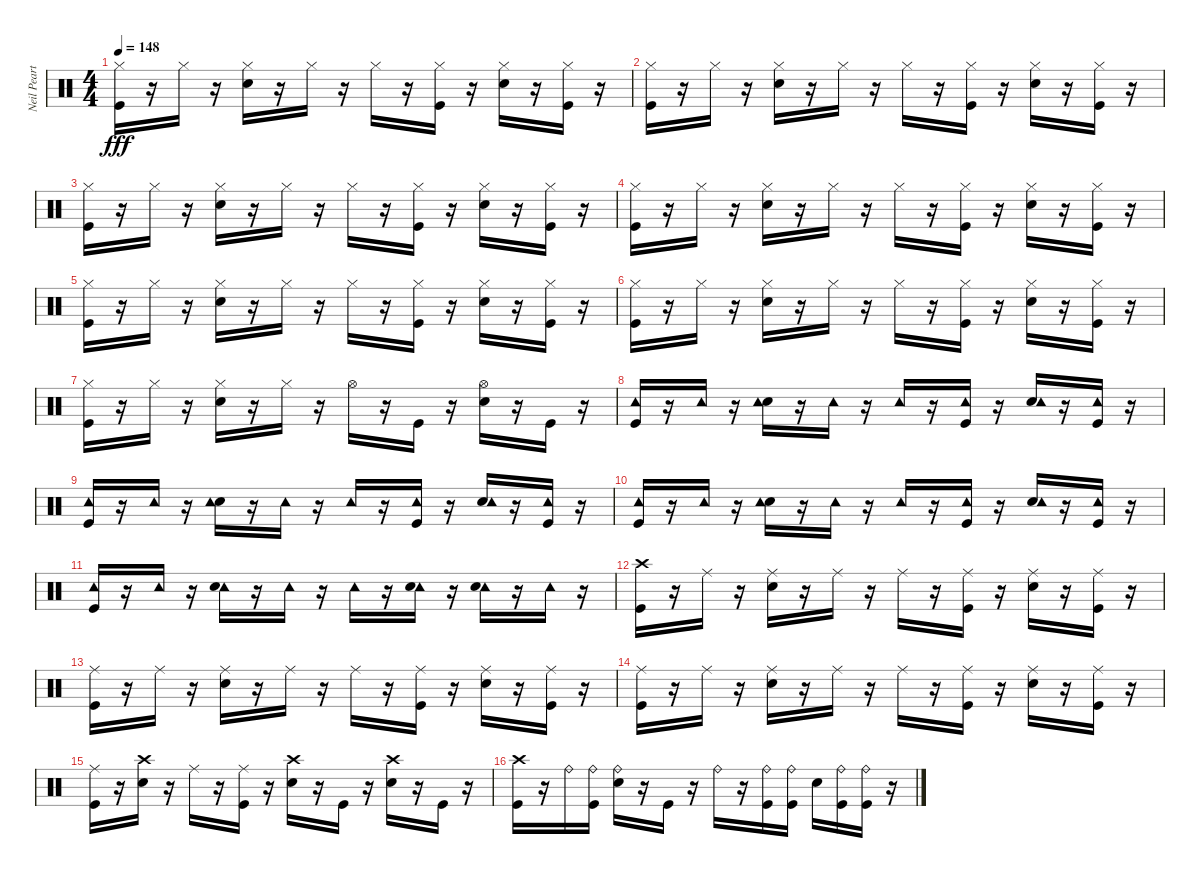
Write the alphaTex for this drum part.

\track ("Neil Peart" "Neil Peart") {instrument percussion}
\staff {score}
\articulation defaults
\ts (4 4)
\tempo 148
\clef neutral
\ks c
("Hi-Hat (closed)" "Kick (hit)").16{dy fff} r.16 "Hi-Hat (closed)".16 r.16 ("Hi-Hat (closed)" "Snare (hit) 2").16 r.16 "Hi-Hat (closed)".16 r.16 "Hi-Hat (closed)".16 r.16 ("Hi-Hat (closed)" "Kick (hit)").16 r.16 ("Hi-Hat (closed)" "Snare (hit) 2").16 r.16 ("Hi-Hat (closed)" "Kick (hit)").16 r.16 |
("Hi-Hat (closed)" "Kick (hit)").16 r.16 "Hi-Hat (closed)".16 r.16 ("Hi-Hat (closed)" "Snare (hit) 2").16 r.16 "Hi-Hat (closed)".16 r.16 "Hi-Hat (closed)".16 r.16 ("Hi-Hat (closed)" "Kick (hit)").16 r.16 ("Hi-Hat (closed)" "Snare (hit) 2").16 r.16 ("Hi-Hat (closed)" "Kick (hit)").16 r.16 |
("Hi-Hat (closed)" "Kick (hit)").16 r.16 "Hi-Hat (closed)".16 r.16 ("Hi-Hat (closed)" "Snare (hit) 2").16 r.16 "Hi-Hat (closed)".16 r.16 "Hi-Hat (closed)".16 r.16 ("Hi-Hat (closed)" "Kick (hit)").16 r.16 ("Hi-Hat (closed)" "Snare (hit) 2").16 r.16 ("Hi-Hat (closed)" "Kick (hit)").16 r.16 |
("Hi-Hat (closed)" "Kick (hit)").16 r.16 "Hi-Hat (closed)".16 r.16 ("Hi-Hat (closed)" "Snare (hit) 2").16 r.16 "Hi-Hat (closed)".16 r.16 "Hi-Hat (closed)".16 r.16 ("Hi-Hat (closed)" "Kick (hit)").16 r.16 ("Hi-Hat (closed)" "Snare (hit) 2").16 r.16 ("Hi-Hat (closed)" "Kick (hit)").16 r.16 |
("Hi-Hat (closed)" "Kick (hit)").16 r.16 "Hi-Hat (closed)".16 r.16 ("Hi-Hat (closed)" "Snare (hit) 2").16 r.16 "Hi-Hat (closed)".16 r.16 "Hi-Hat (closed)".16 r.16 ("Hi-Hat (closed)" "Kick (hit)").16 r.16 ("Hi-Hat (closed)" "Snare (hit) 2").16 r.16 ("Hi-Hat (closed)" "Kick (hit)").16 r.16 |
("Hi-Hat (closed)" "Kick (hit)").16 r.16 "Hi-Hat (closed)".16 r.16 ("Hi-Hat (closed)" "Snare (hit) 2").16 r.16 "Hi-Hat (closed)".16 r.16 "Hi-Hat (closed)".16 r.16 ("Hi-Hat (closed)" "Kick (hit)").16 r.16 ("Hi-Hat (closed)" "Snare (hit) 2").16 r.16 ("Hi-Hat (closed)" "Kick (hit)").16 r.16 |
("Kick (hit)" "Hi-Hat (closed)").16 r.16 "Hi-Hat (closed)".16 r.16 ("Snare (hit) 2" "Hi-Hat (closed)").16 r.16 "Hi-Hat (closed)".16 r.16 "Hi-Hat (open)".16 r.16 "Kick (hit)".16 r.16 ("Snare (hit) 2" "Hi-Hat (open)").16 r.16 "Kick (hit)".16 r.16 |
("Kick (hit)" "Tambourine (hit)").16 r.16 "Tambourine (hit)".16 r.16 ("Snare (hit) 2" "Tambourine (hit)").16 r.16 "Tambourine (hit)".16 r.16 "Tambourine (hit)".16 r.16 ("Kick (hit)" "Tambourine (hit)").16 r.16 ("Snare (hit) 2" "Tambourine (hit)").16 r.16 ("Kick (hit)" "Tambourine (hit)").16 r.16 |
("Kick (hit)" "Tambourine (hit)").16 r.16 "Tambourine (hit)".16 r.16 ("Snare (hit) 2" "Tambourine (hit)").16 r.16 "Tambourine (hit)".16 r.16 "Tambourine (hit)".16 r.16 ("Kick (hit)" "Tambourine (hit)").16 r.16 ("Snare (hit) 2" "Tambourine (hit)").16 r.16 ("Kick (hit)" "Tambourine (hit)").16 r.16 |
("Kick (hit)" "Tambourine (hit)").16 r.16 "Tambourine (hit)".16 r.16 ("Snare (hit) 2" "Tambourine (hit)").16 r.16 "Tambourine (hit)".16 r.16 "Tambourine (hit)".16 r.16 ("Kick (hit)" "Tambourine (hit)").16 r.16 ("Snare (hit) 2" "Tambourine (hit)").16 r.16 ("Kick (hit)" "Tambourine (hit)").16 r.16 |
("Tambourine (hit)" "Kick (hit)").16 r.16 "Tambourine (hit)".16 r.16 ("Tambourine (hit)" "Snare (hit) 2").16 r.16 "Tambourine (hit)".16 r.16 "Tambourine (hit)".16 r.16 ("Tambourine (hit)" "Snare (hit) 2").16 r.16 ("Tambourine (hit)" "Snare (hit) 2").16 r.16 "Tambourine (hit)".16 r.16 |
("Crash high (hit)" "Kick (hit)").16 r.16 "Ride (middle)".16 r.16 ("Snare (hit) 2" "Ride (middle)").16 r.16 "Ride (middle)".16 r.16 "Ride (middle)".16 r.16 ("Kick (hit)" "Ride (middle)").16 r.16 ("Snare (hit) 2" "Ride (middle)").16 r.16 ("Kick (hit)" "Ride (middle)").16 r.16 |
("Ride (middle)" "Kick (hit)").16 r.16 "Ride (middle)".16 r.16 ("Ride (middle)" "Snare (hit) 2").16 r.16 "Ride (middle)".16 r.16 "Ride (middle)".16 r.16 ("Ride (middle)" "Kick (hit)").16 r.16 ("Ride (middle)" "Snare (hit) 2").16 r.16 ("Ride (middle)" "Kick (hit)").16 r.16 |
("Ride (middle)" "Kick (hit)").16 r.16 "Ride (middle)".16 r.16 ("Ride (middle)" "Snare (hit) 2").16 r.16 "Ride (middle)".16 r.16 "Ride (middle)".16 r.16 ("Ride (middle)" "Kick (hit)").16 r.16 ("Ride (middle)" "Snare (hit) 2").16 r.16 ("Ride (middle)" "Kick (hit)").16 r.16 |
("Kick (hit)" "Ride (middle)").16 r.16 ("Crash high (hit)" "Snare (hit) 2").16 r.16 "Ride (middle)".16 r.16 ("Kick (hit)" "Ride (middle)").16 r.16 ("Crash high (hit)" "Snare (hit) 2").16 r.16 "Kick (hit)".16 r.16 ("Crash high (hit)" "Snare (hit) 2").16 r.16 "Kick (hit)".16 r.16 |
("Crash high (hit)" "Kick (hit)").16 r.16 "Ride (bell)".16 ("Kick (hit)" "Ride (bell)").16 ("Snare (hit) 2" "Ride (bell)").16 r.16 "Kick (hit)".16 r.16 "Ride (bell)".16 r.16 ("Kick (hit)" "Ride (bell)").16 ("Kick (hit)" "Ride (bell)").16 "Snare (hit) 2".16 ("Kick (hit)" "Ride (bell)").16 ("Kick (hit)" "Ride (bell)").16 r.16
